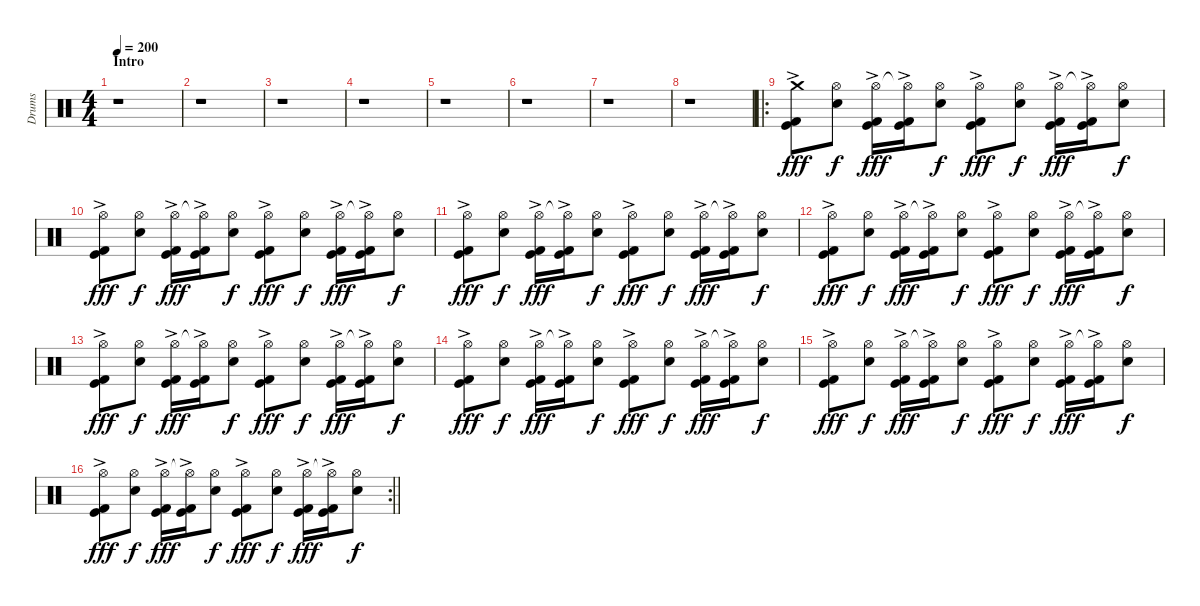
\track ("Drums" "Drums") {instrument percussion}
\staff {score}
\articulation defaults
\ts (4 4)
\section ("" "Intro")
\tempo 200
\clef neutral
\ks c
r.1{dy fff} |
r.1 |
r.1 |
r.1 |
r.1 |
r.1 |
r.1 |
r.1 |
\ro
("Crash medium (hit)" "Kick (hit)" "Kick (hit) 2"{ac}).8 ("Hi-Hat (open)" "Electric Snare (hit)").8{dy f} ("Hi-Hat (open)" "Kick (hit)" "Kick (hit) 2"{ac}).16{dy fff} ("Hi-Hat (open)"{t} "Kick (hit)" "Kick (hit) 2"{ac}).16 ("Hi-Hat (open)" "Electric Snare (hit)").8{dy f} ("Hi-Hat (open)" "Kick (hit)" "Kick (hit) 2"{ac}).8{dy fff} ("Hi-Hat (open)" "Electric Snare (hit)").8{dy f} ("Hi-Hat (open)" "Kick (hit)" "Kick (hit) 2"{ac}).16{dy fff} ("Hi-Hat (open)"{t} "Kick (hit)" "Kick (hit) 2"{ac}).16 ("Hi-Hat (open)" "Electric Snare (hit)").8{dy f} |
("Hi-Hat (open)" "Kick (hit)" "Kick (hit) 2"{ac}).8{dy fff} ("Hi-Hat (open)" "Electric Snare (hit)").8{dy f} ("Hi-Hat (open)" "Kick (hit)" "Kick (hit) 2"{ac}).16{dy fff} ("Hi-Hat (open)"{t} "Kick (hit)" "Kick (hit) 2"{ac}).16 ("Hi-Hat (open)" "Electric Snare (hit)").8{dy f} ("Hi-Hat (open)" "Kick (hit)" "Kick (hit) 2"{ac}).8{dy fff} ("Hi-Hat (open)" "Electric Snare (hit)").8{dy f} ("Hi-Hat (open)" "Kick (hit)" "Kick (hit) 2"{ac}).16{dy fff} ("Hi-Hat (open)"{t} "Kick (hit)" "Kick (hit) 2"{ac}).16 ("Hi-Hat (open)" "Electric Snare (hit)").8{dy f} |
("Hi-Hat (open)" "Kick (hit)" "Kick (hit) 2"{ac}).8{dy fff} ("Hi-Hat (open)" "Electric Snare (hit)").8{dy f} ("Hi-Hat (open)" "Kick (hit)" "Kick (hit) 2"{ac}).16{dy fff} ("Hi-Hat (open)"{t} "Kick (hit)" "Kick (hit) 2"{ac}).16 ("Hi-Hat (open)" "Electric Snare (hit)").8{dy f} ("Hi-Hat (open)" "Kick (hit)" "Kick (hit) 2"{ac}).8{dy fff} ("Hi-Hat (open)" "Electric Snare (hit)").8{dy f} ("Hi-Hat (open)" "Kick (hit)" "Kick (hit) 2"{ac}).16{dy fff} ("Hi-Hat (open)"{t} "Kick (hit)" "Kick (hit) 2"{ac}).16 ("Hi-Hat (open)" "Electric Snare (hit)").8{dy f} |
("Hi-Hat (open)" "Kick (hit)" "Kick (hit) 2"{ac}).8{dy fff} ("Hi-Hat (open)" "Electric Snare (hit)").8{dy f} ("Hi-Hat (open)" "Kick (hit)" "Kick (hit) 2"{ac}).16{dy fff} ("Hi-Hat (open)"{t} "Kick (hit)" "Kick (hit) 2"{ac}).16 ("Hi-Hat (open)" "Electric Snare (hit)").8{dy f} ("Hi-Hat (open)" "Kick (hit)" "Kick (hit) 2"{ac}).8{dy fff} ("Hi-Hat (open)" "Electric Snare (hit)").8{dy f} ("Hi-Hat (open)" "Kick (hit)" "Kick (hit) 2"{ac}).16{dy fff} ("Hi-Hat (open)"{t} "Kick (hit)" "Kick (hit) 2"{ac}).16 ("Hi-Hat (open)" "Electric Snare (hit)").8{dy f} |
("Hi-Hat (open)" "Kick (hit)" "Kick (hit) 2"{ac}).8{dy fff} ("Hi-Hat (open)" "Electric Snare (hit)").8{dy f} ("Hi-Hat (open)" "Kick (hit)" "Kick (hit) 2"{ac}).16{dy fff} ("Hi-Hat (open)"{t} "Kick (hit)" "Kick (hit) 2"{ac}).16 ("Hi-Hat (open)" "Electric Snare (hit)").8{dy f} ("Hi-Hat (open)" "Kick (hit)" "Kick (hit) 2"{ac}).8{dy fff} ("Hi-Hat (open)" "Electric Snare (hit)").8{dy f} ("Hi-Hat (open)" "Kick (hit)" "Kick (hit) 2"{ac}).16{dy fff} ("Hi-Hat (open)"{t} "Kick (hit)" "Kick (hit) 2"{ac}).16 ("Hi-Hat (open)" "Electric Snare (hit)").8{dy f} |
("Hi-Hat (open)" "Kick (hit)" "Kick (hit) 2"{ac}).8{dy fff} ("Hi-Hat (open)" "Electric Snare (hit)").8{dy f} ("Hi-Hat (open)" "Kick (hit)" "Kick (hit) 2"{ac}).16{dy fff} ("Hi-Hat (open)"{t} "Kick (hit)" "Kick (hit) 2"{ac}).16 ("Hi-Hat (open)" "Electric Snare (hit)").8{dy f} ("Hi-Hat (open)" "Kick (hit)" "Kick (hit) 2"{ac}).8{dy fff} ("Hi-Hat (open)" "Electric Snare (hit)").8{dy f} ("Hi-Hat (open)" "Kick (hit)" "Kick (hit) 2"{ac}).16{dy fff} ("Hi-Hat (open)"{t} "Kick (hit)" "Kick (hit) 2"{ac}).16 ("Hi-Hat (open)" "Electric Snare (hit)").8{dy f} |
("Hi-Hat (open)" "Kick (hit)" "Kick (hit) 2"{ac}).8{dy fff} ("Hi-Hat (open)" "Electric Snare (hit)").8{dy f} ("Hi-Hat (open)" "Kick (hit)" "Kick (hit) 2"{ac}).16{dy fff} ("Hi-Hat (open)"{t} "Kick (hit)" "Kick (hit) 2"{ac}).16 ("Hi-Hat (open)" "Electric Snare (hit)").8{dy f} ("Hi-Hat (open)" "Kick (hit)" "Kick (hit) 2"{ac}).8{dy fff} ("Hi-Hat (open)" "Electric Snare (hit)").8{dy f} ("Hi-Hat (open)" "Kick (hit)" "Kick (hit) 2"{ac}).16{dy fff} ("Hi-Hat (open)"{t} "Kick (hit)" "Kick (hit) 2"{ac}).16 ("Hi-Hat (open)" "Electric Snare (hit)").8{dy f} |
\rc 2
\barLineRight lightlight
("Hi-Hat (open)" "Kick (hit)" "Kick (hit) 2"{ac}).8{dy fff} ("Hi-Hat (open)" "Electric Snare (hit)").8{dy f} ("Hi-Hat (open)" "Kick (hit)" "Kick (hit) 2"{ac}).16{dy fff} ("Hi-Hat (open)"{t} "Kick (hit)" "Kick (hit) 2"{ac}).16 ("Hi-Hat (open)" "Electric Snare (hit)").8{dy f} ("Hi-Hat (open)" "Kick (hit)" "Kick (hit) 2"{ac}).8{dy fff} ("Hi-Hat (open)" "Electric Snare (hit)").8{dy f} ("Hi-Hat (open)" "Kick (hit)" "Kick (hit) 2"{ac}).16{dy fff} ("Hi-Hat (open)"{t} "Kick (hit)" "Kick (hit) 2"{ac}).16 ("Hi-Hat (open)" "Electric Snare (hit)").8{dy f}
